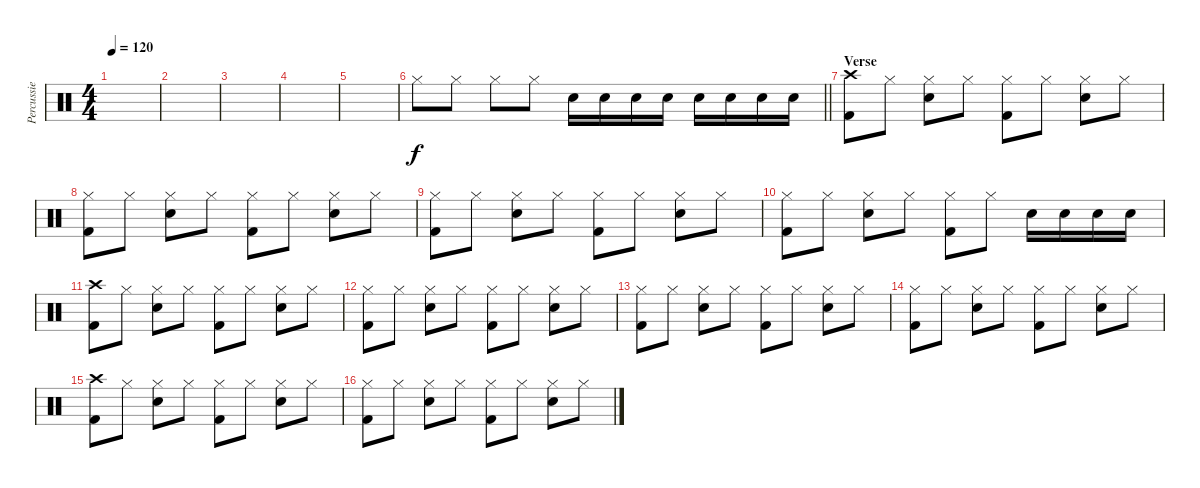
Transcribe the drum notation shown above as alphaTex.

\track ("Percussie" "Percussie") {instrument percussion}
\staff {score}
\articulation defaults
\ts (4 4)
\tempo 120
\clef neutral
\ks c
|
|
|
|
|
\barLineRight lightlight "Hi-Hat (closed)".8 "Hi-Hat (closed)".8 "Hi-Hat (closed)".8 "Hi-Hat (closed)".8 "Electric Snare (hit)".16 "Electric Snare (hit)".16 "Electric Snare (hit)".16 "Electric Snare (hit)".16 "Electric Snare (hit)".16 "Electric Snare (hit)".16 "Electric Snare (hit)".16 "Electric Snare (hit)".16
|
\section ("" "Verse ")
("Crash high (hit)" "Kick (hit) 2").8 "Hi-Hat (closed)".8 ("Hi-Hat (closed)" "Electric Snare (hit)").8 "Hi-Hat (closed)".8 ("Hi-Hat (closed)" "Kick (hit) 2").8 "Hi-Hat (closed)".8 ("Hi-Hat (closed)" "Electric Snare (hit)").8 "Hi-Hat (closed)".8 |
("Hi-Hat (closed)" "Kick (hit) 2").8 "Hi-Hat (closed)".8 ("Hi-Hat (closed)" "Electric Snare (hit)").8 "Hi-Hat (closed)".8 ("Hi-Hat (closed)" "Kick (hit) 2").8 "Hi-Hat (closed)".8 ("Hi-Hat (closed)" "Electric Snare (hit)").8 "Hi-Hat (closed)".8 |
("Hi-Hat (closed)" "Kick (hit) 2").8 "Hi-Hat (closed)".8 ("Hi-Hat (closed)" "Electric Snare (hit)").8 "Hi-Hat (closed)".8 ("Hi-Hat (closed)" "Kick (hit) 2").8 "Hi-Hat (closed)".8 ("Hi-Hat (closed)" "Electric Snare (hit)").8 "Hi-Hat (closed)".8 |
("Hi-Hat (closed)" "Kick (hit) 2").8 "Hi-Hat (closed)".8 ("Hi-Hat (closed)" "Electric Snare (hit)").8 "Hi-Hat (closed)".8 ("Hi-Hat (closed)" "Kick (hit) 2").8 "Hi-Hat (closed)".8 "Electric Snare (hit)".16 "Electric Snare (hit)".16 "Electric Snare (hit)".16 "Electric Snare (hit)".16 |
("Crash high (hit)" "Kick (hit) 2").8 "Hi-Hat (closed)".8 ("Hi-Hat (closed)" "Electric Snare (hit)").8 "Hi-Hat (closed)".8 ("Hi-Hat (closed)" "Kick (hit) 2").8 "Hi-Hat (closed)".8 ("Hi-Hat (closed)" "Electric Snare (hit)").8 "Hi-Hat (closed)".8 |
("Hi-Hat (closed)" "Kick (hit) 2").8 "Hi-Hat (closed)".8 ("Hi-Hat (closed)" "Electric Snare (hit)").8 "Hi-Hat (closed)".8 ("Hi-Hat (closed)" "Kick (hit) 2").8 "Hi-Hat (closed)".8 ("Hi-Hat (closed)" "Electric Snare (hit)").8 "Hi-Hat (closed)".8 |
("Hi-Hat (closed)" "Kick (hit) 2").8 "Hi-Hat (closed)".8 ("Hi-Hat (closed)" "Electric Snare (hit)").8 "Hi-Hat (closed)".8 ("Hi-Hat (closed)" "Kick (hit) 2").8 "Hi-Hat (closed)".8 ("Hi-Hat (closed)" "Electric Snare (hit)").8 "Hi-Hat (closed)".8 |
("Hi-Hat (closed)" "Kick (hit) 2").8 "Hi-Hat (closed)".8 ("Hi-Hat (closed)" "Electric Snare (hit)").8 "Hi-Hat (closed)".8 ("Hi-Hat (closed)" "Kick (hit) 2").8 "Hi-Hat (closed)".8 ("Hi-Hat (closed)" "Electric Snare (hit)").8 "Hi-Hat (closed)".8 |
("Crash high (hit)" "Kick (hit) 2").8 "Hi-Hat (closed)".8 ("Hi-Hat (closed)" "Electric Snare (hit)").8 "Hi-Hat (closed)".8 ("Hi-Hat (closed)" "Kick (hit) 2").8 "Hi-Hat (closed)".8 ("Hi-Hat (closed)" "Electric Snare (hit)").8 "Hi-Hat (closed)".8 |
("Hi-Hat (closed)" "Kick (hit) 2").8 "Hi-Hat (closed)".8 ("Hi-Hat (closed)" "Electric Snare (hit)").8 "Hi-Hat (closed)".8 ("Hi-Hat (closed)" "Kick (hit) 2").8 "Hi-Hat (closed)".8 ("Hi-Hat (closed)" "Electric Snare (hit)").8 "Hi-Hat (closed)".8
